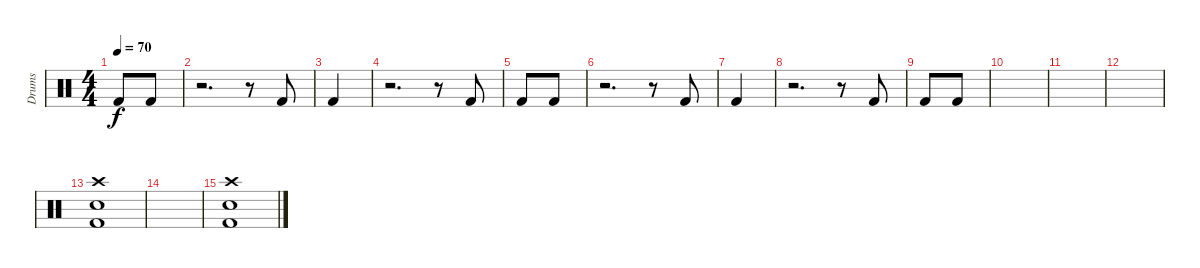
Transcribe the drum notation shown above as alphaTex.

\track ("Drums" "Drums") {instrument percussion}
\staff {score}
\articulation defaults
\ts (4 4)
\tempo 70
\clef neutral
\ks c "Kick (hit) 2".8{dy f} "Kick (hit) 2".8
|
r.2{d} r.8 "Kick (hit) 2".8 |
"Kick (hit) 2".4 |
r.2{d} r.8 "Kick (hit) 2".8 |
"Kick (hit) 2".8 "Kick (hit) 2".8 |
r.2{d} r.8 "Kick (hit) 2".8 |
"Kick (hit) 2".4 |
r.2{d} r.8 "Kick (hit) 2".8 |
"Kick (hit) 2".8 "Kick (hit) 2".8 |
|
|
|
("Crash high (hit)" "Snare (hit) 2" "Kick (hit) 2").1 |
|
("Crash high (hit)" "Snare (hit) 2" "Kick (hit) 2").1
